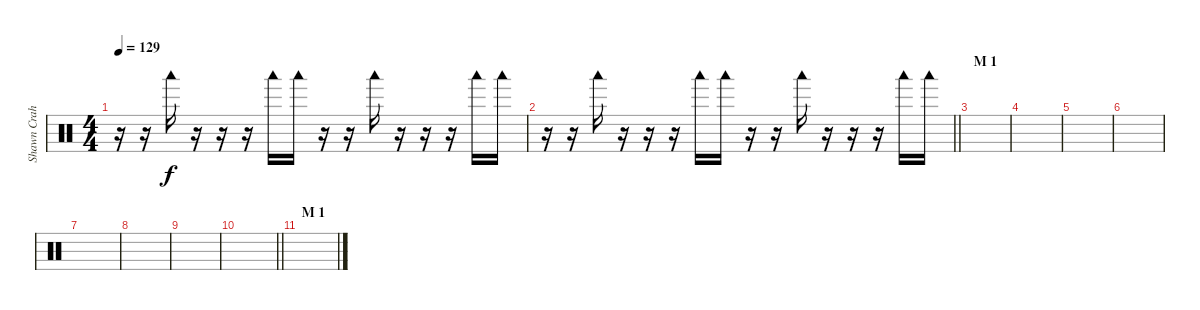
\track ("Shawn Crahan" "Shawn Crah") {instrument percussion}
\staff {score}
\articulation defaults
\ts (4 4)
\tempo 129
\clef neutral
\ks c
r.16{dy f} r.16 "Woodblock low (hit)".16 r.16 r.16 r.16 "Woodblock low (hit)".16 "Woodblock low (hit)".16 r.16 r.16 "Woodblock low (hit)".16 r.16 r.16 r.16 "Woodblock low (hit)".16 "Woodblock low (hit)".16 |
\barLineRight lightlight
r.16 r.16 "Woodblock low (hit)".16 r.16 r.16 r.16 "Woodblock low (hit)".16 "Woodblock low (hit)".16 r.16 r.16 "Woodblock low (hit)".16 r.16 r.16 r.16 "Woodblock low (hit)".16 "Woodblock low (hit)".16 |
\section ("" "M 1")
|
|
|
|
|
|
|
\barLineRight lightlight
|
\section ("" "M 1")
